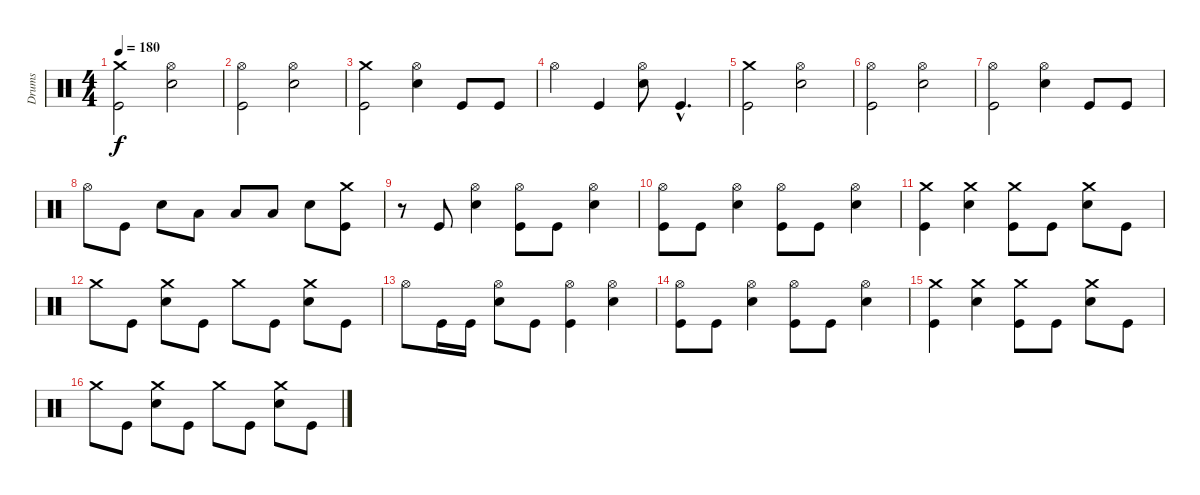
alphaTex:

\track ("Drums" "Drums") {instrument percussion}
\staff {score}
\articulation defaults
\ts (4 4)
\tempo 180
\clef neutral
\ks c
("Crash medium (hit)" "Kick (hit)").2{dy f} ("Hi-Hat (open)" "Electric Snare (hit)").2 |
("Hi-Hat (open)" "Kick (hit)").2 ("Hi-Hat (open)" "Electric Snare (hit)").2 |
("Crash medium (hit)" "Kick (hit)").2 ("Hi-Hat (open)" "Electric Snare (hit)").4 "Kick (hit)".8 "Kick (hit)".8 |
"Hi-Hat (open)".4 "Kick (hit)".4 ("Hi-Hat (open)" "Electric Snare (hit)").8 "Kick (hit)"{hac}.4{d} |
("Crash medium (hit)" "Kick (hit)").2 ("Hi-Hat (open)" "Electric Snare (hit)").2 |
("Hi-Hat (open)" "Kick (hit)").2 ("Hi-Hat (open)" "Electric Snare (hit)").2 |
("Hi-Hat (open)" "Kick (hit)").2 ("Hi-Hat (open)" "Electric Snare (hit)").4 "Kick (hit)".8 "Kick (hit)".8 |
"Hi-Hat (open)".8 "Kick (hit)".8 "Electric Snare (hit)".8 "Low Tom (hit)".8 "Low Tom (hit)".8 "Low Tom (hit)".8 "Electric Snare (hit)".8 ("Crash medium (hit)" "Kick (hit)").8 |
r.8 "Kick (hit)".8 ("Hi-Hat (open)" "Electric Snare (hit)").4 ("Hi-Hat (open)" "Kick (hit)").8 "Kick (hit)".8 ("Hi-Hat (open)" "Electric Snare (hit)").4 |
("Hi-Hat (open)" "Kick (hit)").8 "Kick (hit)".8 ("Hi-Hat (open)" "Electric Snare (hit)").4 ("Hi-Hat (open)" "Kick (hit)").8 "Kick (hit)".8 ("Hi-Hat (open)" "Electric Snare (hit)").4 |
("Crash medium (hit)" "Kick (hit)").4 ("Crash medium (hit)" "Electric Snare (hit)").4 ("Crash medium (hit)" "Kick (hit)").8 "Kick (hit)".8 ("Crash medium (hit)" "Electric Snare (hit)").8 "Kick (hit)".8 |
"Crash medium (hit)".8 "Kick (hit)".8 ("Crash medium (hit)" "Electric Snare (hit)").8 "Kick (hit)".8 "Crash medium (hit)".8 "Kick (hit)".8 ("Crash medium (hit)" "Electric Snare (hit)").8 "Kick (hit)".8 |
"Hi-Hat (open)".8 "Kick (hit)".16 "Kick (hit)".16 ("Hi-Hat (open)" "Electric Snare (hit)").8 "Kick (hit)".8 ("Hi-Hat (open)" "Kick (hit)").4 ("Hi-Hat (open)" "Electric Snare (hit)").4 |
("Hi-Hat (open)" "Kick (hit)").8 "Kick (hit)".8 ("Hi-Hat (open)" "Electric Snare (hit)").4 ("Hi-Hat (open)" "Kick (hit)").8 "Kick (hit)".8 ("Hi-Hat (open)" "Electric Snare (hit)").4 |
("Crash medium (hit)" "Kick (hit)").4 ("Crash medium (hit)" "Electric Snare (hit)").4 ("Crash medium (hit)" "Kick (hit)").8 "Kick (hit)".8 ("Crash medium (hit)" "Electric Snare (hit)").8 "Kick (hit)".8 |
"Crash medium (hit)".8 "Kick (hit)".8 ("Crash medium (hit)" "Electric Snare (hit)").8 "Kick (hit)".8 "Crash medium (hit)".8 "Kick (hit)".8 ("Crash medium (hit)" "Electric Snare (hit)").8 "Kick (hit)".8
